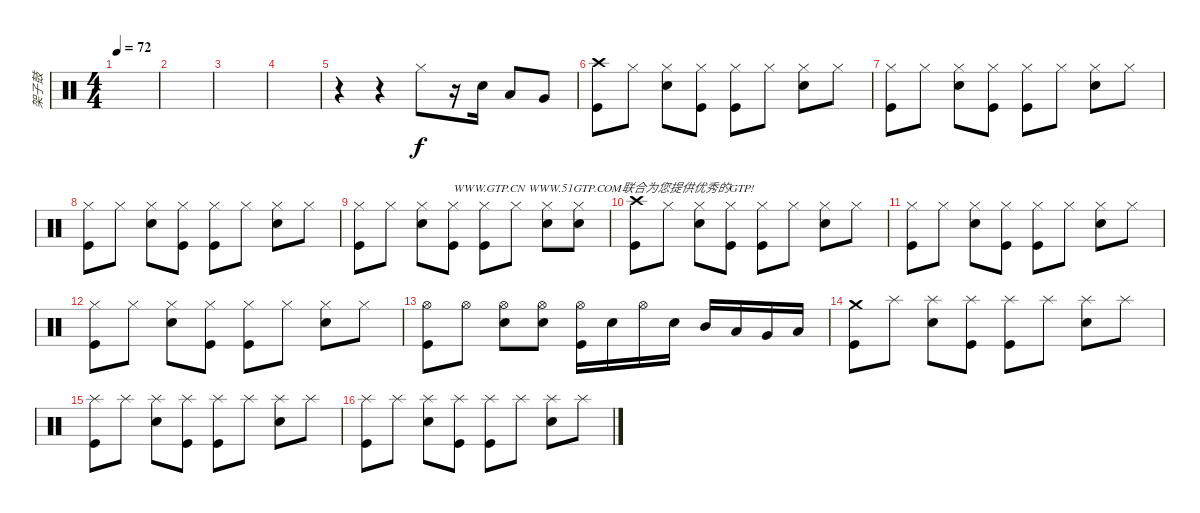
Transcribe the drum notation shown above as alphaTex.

\track ("架子鼓" "架子鼓") {instrument percussion}
\staff {score}
\articulation defaults
\ts (4 4)
\tempo 72
\clef neutral
\ks c
|
|
|
|
r.4 r.4 "Hi-Hat (closed)".8 r.16 "Snare (hit) 2".16 "Low Tom (hit)".8 "Very Low Tom (hit)".8 |
("Crash high (hit)" "Kick (hit)").8 "Hi-Hat (closed)".8 ("Hi-Hat (closed)" "Snare (hit) 2").8 ("Hi-Hat (closed)" "Kick (hit)").8 ("Hi-Hat (closed)" "Kick (hit)").8 "Hi-Hat (closed)".8 ("Hi-Hat (closed)" "Snare (hit) 2").8 "Hi-Hat (closed)".8 |
("Hi-Hat (closed)" "Kick (hit)").8 "Hi-Hat (closed)".8 ("Hi-Hat (closed)" "Snare (hit) 2").8 ("Hi-Hat (closed)" "Kick (hit)").8 ("Hi-Hat (closed)" "Kick (hit)").8 "Hi-Hat (closed)".8 ("Hi-Hat (closed)" "Snare (hit) 2").8 "Hi-Hat (closed)".8 |
("Hi-Hat (closed)" "Kick (hit)").8 "Hi-Hat (closed)".8 ("Hi-Hat (closed)" "Snare (hit) 2").8 ("Hi-Hat (closed)" "Kick (hit)").8 ("Hi-Hat (closed)" "Kick (hit)").8 "Hi-Hat (closed)".8 ("Hi-Hat (closed)" "Snare (hit) 2").8 "Hi-Hat (closed)".8 |
("Hi-Hat (closed)" "Kick (hit)").8 "Hi-Hat (closed)".8 ("Hi-Hat (closed)" "Snare (hit) 2").8 ("Hi-Hat (closed)" "Kick (hit)").8{txt "WWW.GTP.CN WWW.51GTP.COM联合为您提供优秀的GTP!"} ("Hi-Hat (closed)" "Kick (hit)").8 "Hi-Hat (closed)".8 ("Hi-Hat (closed)" "Snare (hit) 2").8 ("Hi-Hat (closed)" "Snare (hit) 2").8 |
("Crash high (hit)" "Kick (hit)").8 "Hi-Hat (closed)".8 ("Hi-Hat (closed)" "Snare (hit) 2").8 ("Hi-Hat (closed)" "Kick (hit)").8 ("Hi-Hat (closed)" "Kick (hit)").8 "Hi-Hat (closed)".8 ("Hi-Hat (closed)" "Snare (hit) 2").8 "Hi-Hat (closed)".8 |
("Hi-Hat (closed)" "Kick (hit)").8 "Hi-Hat (closed)".8 ("Hi-Hat (closed)" "Snare (hit) 2").8 ("Hi-Hat (closed)" "Kick (hit)").8 ("Hi-Hat (closed)" "Kick (hit)").8 "Hi-Hat (closed)".8 ("Hi-Hat (closed)" "Snare (hit) 2").8 "Hi-Hat (closed)".8 |
("Hi-Hat (closed)" "Kick (hit)").8 "Hi-Hat (closed)".8 ("Hi-Hat (closed)" "Snare (hit) 2").8 ("Hi-Hat (closed)" "Kick (hit)").8 ("Hi-Hat (closed)" "Kick (hit)").8 "Hi-Hat (closed)".8 ("Hi-Hat (closed)" "Snare (hit) 2").8 "Hi-Hat (closed)".8 |
("Hi-Hat (open)" "Kick (hit)").8 "Hi-Hat (open)".8 ("Hi-Hat (open)" "Snare (hit) 2").8 ("Hi-Hat (open)" "Snare (hit) 2").8 ("Hi-Hat (open)" "Kick (hit)").16 "Snare (hit) 2".16 "Hi-Hat (open)".16 "Snare (hit) 2".16 "Mid Tom (hit)".16 "Low Tom (hit)".16 "Very Low Tom (hit)".16 "Low Floor Tom (hit)".16 |
("Crash medium (hit)" "Kick (hit)").8 "Splash (hit)".8 ("Splash (hit)" "Electric Snare (hit)").8 ("Splash (hit)" "Kick (hit)").8 ("Splash (hit)" "Kick (hit)").8 "Splash (hit)".8 ("Splash (hit)" "Electric Snare (hit)").8 "Splash (hit)".8 |
("Splash (hit)" "Kick (hit)").8 "Splash (hit)".8 ("Splash (hit)" "Electric Snare (hit)").8 ("Splash (hit)" "Kick (hit)").8 ("Splash (hit)" "Kick (hit)").8 "Splash (hit)".8 ("Splash (hit)" "Electric Snare (hit)").8 "Splash (hit)".8 |
("Splash (hit)" "Kick (hit)").8 "Splash (hit)".8 ("Splash (hit)" "Electric Snare (hit)").8 ("Splash (hit)" "Kick (hit)").8 ("Splash (hit)" "Kick (hit)").8 "Splash (hit)".8 ("Splash (hit)" "Electric Snare (hit)").8 "Splash (hit)".8
